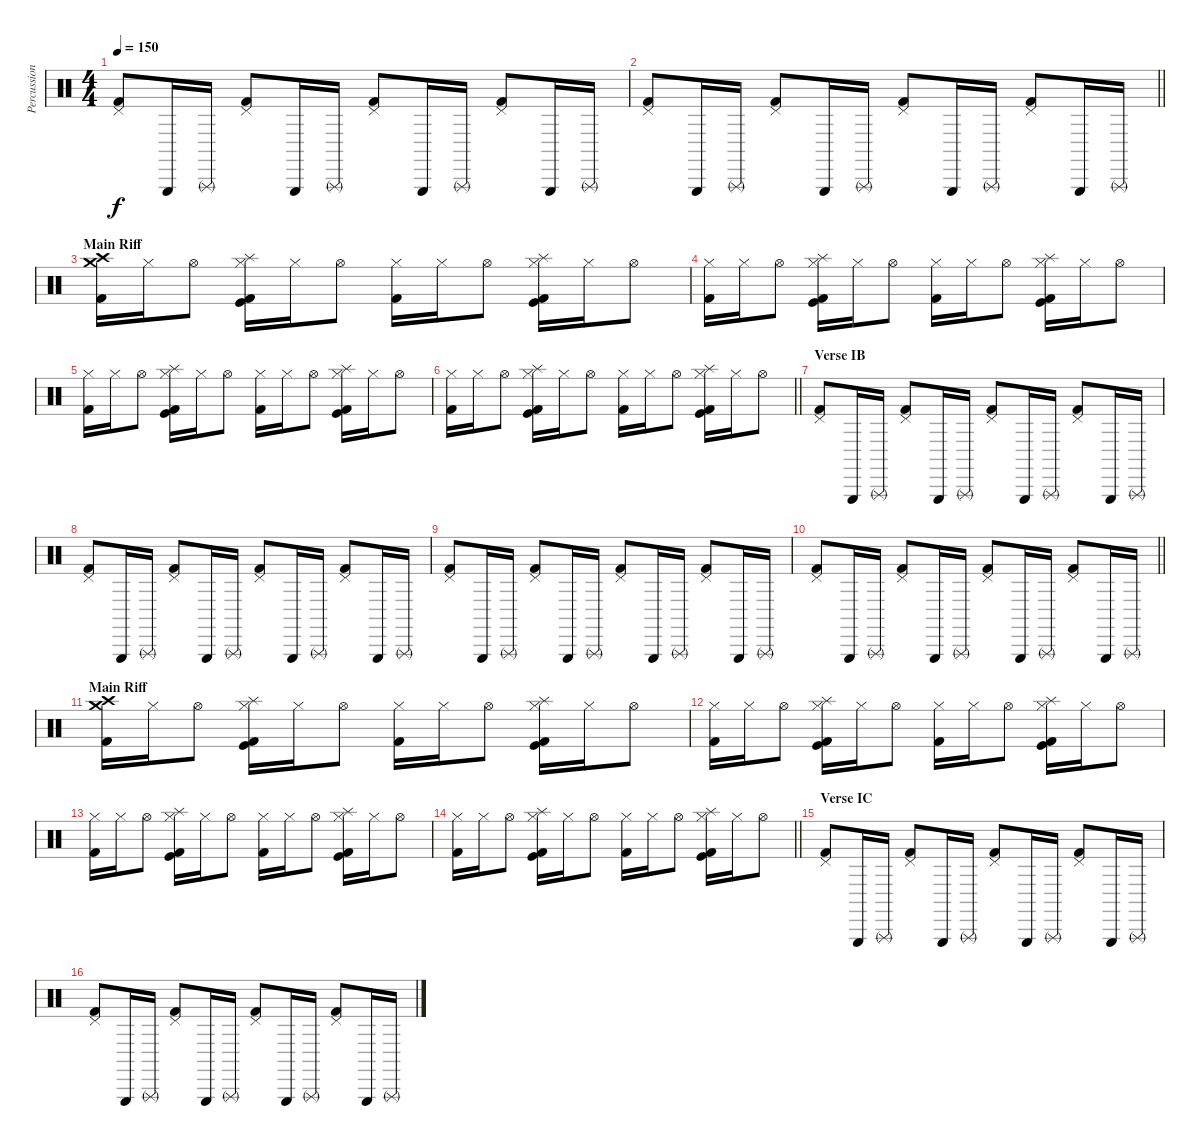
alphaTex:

\track ("Percussion" "Percussion") {instrument percussion}
\staff {score}
\articulation defaults
\ts (4 4)
\tempo 150
\clef neutral
\ks c
("Pedal Hi-Hat (hit)" "Kick (hit) 2").8{dy f} "Triangle (hit)".16 "Triangle (rnute)".16 ("Pedal Hi-Hat (hit)" "Kick (hit) 2").8 "Triangle (hit)".16 "Triangle (rnute)".16 ("Pedal Hi-Hat (hit)" "Kick (hit) 2").8 "Triangle (hit)".16 "Triangle (rnute)".16 ("Pedal Hi-Hat (hit)" "Kick (hit) 2").8 "Triangle (hit)".16 "Triangle (rnute)".16 |
\barLineRight lightlight
("Pedal Hi-Hat (hit)" "Kick (hit) 2").8 "Triangle (hit)".16 "Triangle (rnute)".16 ("Pedal Hi-Hat (hit)" "Kick (hit) 2").8 "Triangle (hit)".16 "Triangle (rnute)".16 ("Pedal Hi-Hat (hit)" "Kick (hit) 2").8 "Triangle (hit)".16 "Triangle (rnute)".16 ("Pedal Hi-Hat (hit)" "Kick (hit) 2").8 "Triangle (hit)".16 "Triangle (rnute)".16 |
\section ("" "Main Riff")
("Crash high (hit)" "Crash medium (hit)" "Kick (hit) 2").16 "Hi-Hat (closed)".16 "Hi-Hat (open)".8 ("Hi-Hat (closed)" "Splash (hit)" "Kick (hit)" "Kick (hit) 2").16 "Hi-Hat (closed)".16 "Hi-Hat (open)".8 ("Hi-Hat (closed)" "Kick (hit) 2").16 "Hi-Hat (closed)".16 "Hi-Hat (open)".8 ("Hi-Hat (closed)" "Splash (hit)" "Kick (hit)" "Kick (hit) 2").16 "Hi-Hat (closed)".16 "Hi-Hat (open)".8 |
("Hi-Hat (closed)" "Kick (hit) 2").16 "Hi-Hat (closed)".16 "Hi-Hat (open)".8 ("Hi-Hat (closed)" "Splash (hit)" "Kick (hit)" "Kick (hit) 2").16 "Hi-Hat (closed)".16 "Hi-Hat (open)".8 ("Hi-Hat (closed)" "Kick (hit) 2").16 "Hi-Hat (closed)".16 "Hi-Hat (open)".8 ("Hi-Hat (closed)" "Splash (hit)" "Kick (hit)" "Kick (hit) 2").16 "Hi-Hat (closed)".16 "Hi-Hat (open)".8 |
("Hi-Hat (closed)" "Kick (hit) 2").16 "Hi-Hat (closed)".16 "Hi-Hat (open)".8 ("Hi-Hat (closed)" "Splash (hit)" "Kick (hit)" "Kick (hit) 2").16 "Hi-Hat (closed)".16 "Hi-Hat (open)".8 ("Hi-Hat (closed)" "Kick (hit) 2").16 "Hi-Hat (closed)".16 "Hi-Hat (open)".8 ("Hi-Hat (closed)" "Splash (hit)" "Kick (hit)" "Kick (hit) 2").16 "Hi-Hat (closed)".16 "Hi-Hat (open)".8 |
\barLineRight lightlight
("Hi-Hat (closed)" "Kick (hit) 2").16 "Hi-Hat (closed)".16 "Hi-Hat (open)".8 ("Hi-Hat (closed)" "Splash (hit)" "Kick (hit)" "Kick (hit) 2").16 "Hi-Hat (closed)".16 "Hi-Hat (open)".8 ("Hi-Hat (closed)" "Kick (hit) 2").16 "Hi-Hat (closed)".16 "Hi-Hat (open)".8 ("Hi-Hat (closed)" "Splash (hit)" "Kick (hit)" "Kick (hit) 2").16 "Hi-Hat (closed)".16 "Hi-Hat (open)".8 |
\section ("" "Verse IB")
("Pedal Hi-Hat (hit)" "Kick (hit) 2").8 "Triangle (hit)".16 "Triangle (rnute)".16 ("Pedal Hi-Hat (hit)" "Kick (hit) 2").8 "Triangle (hit)".16 "Triangle (rnute)".16 ("Pedal Hi-Hat (hit)" "Kick (hit) 2").8 "Triangle (hit)".16 "Triangle (rnute)".16 ("Pedal Hi-Hat (hit)" "Kick (hit) 2").8 "Triangle (hit)".16 "Triangle (rnute)".16 |
("Pedal Hi-Hat (hit)" "Kick (hit) 2").8 "Triangle (hit)".16 "Triangle (rnute)".16 ("Pedal Hi-Hat (hit)" "Kick (hit) 2").8 "Triangle (hit)".16 "Triangle (rnute)".16 ("Pedal Hi-Hat (hit)" "Kick (hit) 2").8 "Triangle (hit)".16 "Triangle (rnute)".16 ("Pedal Hi-Hat (hit)" "Kick (hit) 2").8 "Triangle (hit)".16 "Triangle (rnute)".16 |
("Pedal Hi-Hat (hit)" "Kick (hit) 2").8 "Triangle (hit)".16 "Triangle (rnute)".16 ("Pedal Hi-Hat (hit)" "Kick (hit) 2").8 "Triangle (hit)".16 "Triangle (rnute)".16 ("Pedal Hi-Hat (hit)" "Kick (hit) 2").8 "Triangle (hit)".16 "Triangle (rnute)".16 ("Pedal Hi-Hat (hit)" "Kick (hit) 2").8 "Triangle (hit)".16 "Triangle (rnute)".16 |
\barLineRight lightlight
("Pedal Hi-Hat (hit)" "Kick (hit) 2").8 "Triangle (hit)".16 "Triangle (rnute)".16 ("Pedal Hi-Hat (hit)" "Kick (hit) 2").8 "Triangle (hit)".16 "Triangle (rnute)".16 ("Pedal Hi-Hat (hit)" "Kick (hit) 2").8 "Triangle (hit)".16 "Triangle (rnute)".16 ("Pedal Hi-Hat (hit)" "Kick (hit) 2").8 "Triangle (hit)".16 "Triangle (rnute)".16 |
\section ("" "Main Riff")
("Crash high (hit)" "Crash medium (hit)" "Kick (hit) 2").16 "Hi-Hat (closed)".16 "Hi-Hat (open)".8 ("Hi-Hat (closed)" "Splash (hit)" "Kick (hit)" "Kick (hit) 2").16 "Hi-Hat (closed)".16 "Hi-Hat (open)".8 ("Hi-Hat (closed)" "Kick (hit) 2").16 "Hi-Hat (closed)".16 "Hi-Hat (open)".8 ("Hi-Hat (closed)" "Splash (hit)" "Kick (hit)" "Kick (hit) 2").16 "Hi-Hat (closed)".16 "Hi-Hat (open)".8 |
("Hi-Hat (closed)" "Kick (hit) 2").16 "Hi-Hat (closed)".16 "Hi-Hat (open)".8 ("Hi-Hat (closed)" "Splash (hit)" "Kick (hit)" "Kick (hit) 2").16 "Hi-Hat (closed)".16 "Hi-Hat (open)".8 ("Hi-Hat (closed)" "Kick (hit) 2").16 "Hi-Hat (closed)".16 "Hi-Hat (open)".8 ("Hi-Hat (closed)" "Splash (hit)" "Kick (hit)" "Kick (hit) 2").16 "Hi-Hat (closed)".16 "Hi-Hat (open)".8 |
("Hi-Hat (closed)" "Kick (hit) 2").16 "Hi-Hat (closed)".16 "Hi-Hat (open)".8 ("Hi-Hat (closed)" "Splash (hit)" "Kick (hit)" "Kick (hit) 2").16 "Hi-Hat (closed)".16 "Hi-Hat (open)".8 ("Hi-Hat (closed)" "Kick (hit) 2").16 "Hi-Hat (closed)".16 "Hi-Hat (open)".8 ("Hi-Hat (closed)" "Splash (hit)" "Kick (hit)" "Kick (hit) 2").16 "Hi-Hat (closed)".16 "Hi-Hat (open)".8 |
\barLineRight lightlight
("Hi-Hat (closed)" "Kick (hit) 2").16 "Hi-Hat (closed)".16 "Hi-Hat (open)".8 ("Hi-Hat (closed)" "Splash (hit)" "Kick (hit)" "Kick (hit) 2").16 "Hi-Hat (closed)".16 "Hi-Hat (open)".8 ("Hi-Hat (closed)" "Kick (hit) 2").16 "Hi-Hat (closed)".16 "Hi-Hat (open)".8 ("Hi-Hat (closed)" "Splash (hit)" "Kick (hit)" "Kick (hit) 2").16 "Hi-Hat (closed)".16 "Hi-Hat (open)".8 |
\section ("" "Verse IC")
("Pedal Hi-Hat (hit)" "Kick (hit) 2").8 "Triangle (hit)".16 "Triangle (rnute)".16 ("Pedal Hi-Hat (hit)" "Kick (hit) 2").8 "Triangle (hit)".16 "Triangle (rnute)".16 ("Pedal Hi-Hat (hit)" "Kick (hit) 2").8 "Triangle (hit)".16 "Triangle (rnute)".16 ("Pedal Hi-Hat (hit)" "Kick (hit) 2").8 "Triangle (hit)".16 "Triangle (rnute)".16 |
("Pedal Hi-Hat (hit)" "Kick (hit) 2").8 "Triangle (hit)".16 "Triangle (rnute)".16 ("Pedal Hi-Hat (hit)" "Kick (hit) 2").8 "Triangle (hit)".16 "Triangle (rnute)".16 ("Pedal Hi-Hat (hit)" "Kick (hit) 2").8 "Triangle (hit)".16 "Triangle (rnute)".16 ("Pedal Hi-Hat (hit)" "Kick (hit) 2").8 "Triangle (hit)".16 "Triangle (rnute)".16
